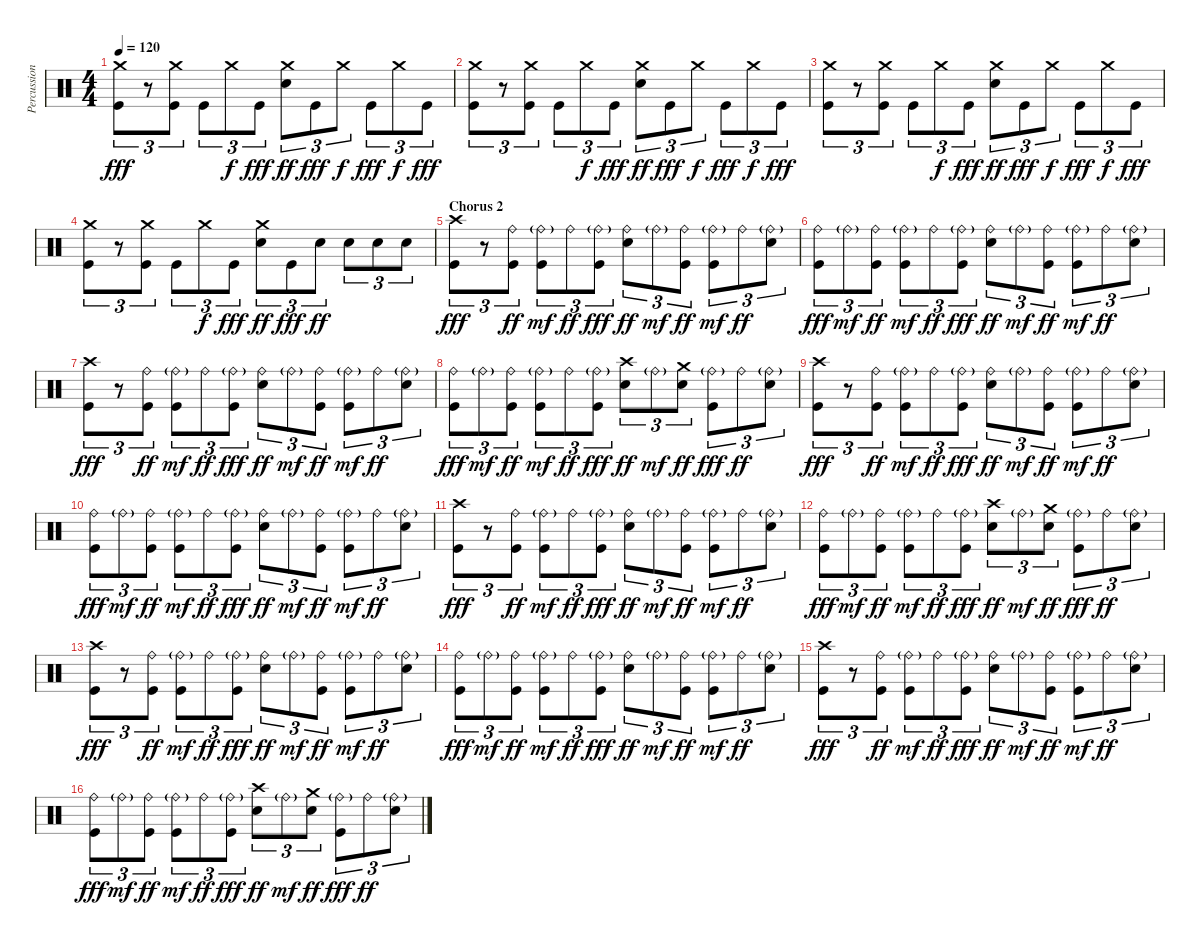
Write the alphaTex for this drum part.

\track ("Percussion" "Percussion") {instrument percussion}
\staff {score}
\articulation defaults
\ts (4 4)
\tempo 120
\clef neutral
\ks c
("Crash medium (hit)" "Kick (hit)").8{tu (3 2) dy fff} r.8{tu (3 2)} ("Crash medium (hit)" "Kick (hit)").8{tu (3 2)} "Kick (hit)".8{tu (3 2)} "Crash medium (hit)".8{tu (3 2) dy f} "Kick (hit)".8{tu (3 2) dy fff} ("Crash medium (hit)" "Snare (hit) 2").8{tu (3 2) dy ff} "Kick (hit)".8{tu (3 2) dy fff} "Crash medium (hit)".8{tu (3 2) dy f} "Kick (hit)".8{tu (3 2) dy fff} "Crash medium (hit)".8{tu (3 2) dy f} "Kick (hit)".8{tu (3 2) dy fff} |
("Crash medium (hit)" "Kick (hit)").8{tu (3 2)} r.8{tu (3 2)} ("Crash medium (hit)" "Kick (hit)").8{tu (3 2)} "Kick (hit)".8{tu (3 2)} "Crash medium (hit)".8{tu (3 2) dy f} "Kick (hit)".8{tu (3 2) dy fff} ("Crash medium (hit)" "Snare (hit) 2").8{tu (3 2) dy ff} "Kick (hit)".8{tu (3 2) dy fff} "Crash medium (hit)".8{tu (3 2) dy f} "Kick (hit)".8{tu (3 2) dy fff} "Crash medium (hit)".8{tu (3 2) dy f} "Kick (hit)".8{tu (3 2) dy fff} |
("Crash medium (hit)" "Kick (hit)").8{tu (3 2)} r.8{tu (3 2)} ("Crash medium (hit)" "Kick (hit)").8{tu (3 2)} "Kick (hit)".8{tu (3 2)} "Crash medium (hit)".8{tu (3 2) dy f} "Kick (hit)".8{tu (3 2) dy fff} ("Crash medium (hit)" "Snare (hit) 2").8{tu (3 2) dy ff} "Kick (hit)".8{tu (3 2) dy fff} "Crash medium (hit)".8{tu (3 2) dy f} "Kick (hit)".8{tu (3 2) dy fff} "Crash medium (hit)".8{tu (3 2) dy f} "Kick (hit)".8{tu (3 2) dy fff} |
("Crash medium (hit)" "Kick (hit)").8{tu (3 2)} r.8{tu (3 2)} ("Crash medium (hit)" "Kick (hit)").8{tu (3 2)} "Kick (hit)".8{tu (3 2)} "Crash medium (hit)".8{tu (3 2) dy f} "Kick (hit)".8{tu (3 2) dy fff} ("Crash medium (hit)" "Snare (hit) 2").8{tu (3 2) dy ff} "Kick (hit)".8{tu (3 2) dy fff} "Snare (hit) 2".8{tu (3 2) dy ff} "Snare (hit) 2".8{tu (3 2)} "Snare (hit) 2".8{tu (3 2)} "Snare (hit) 2".8{tu (3 2)} |
\section ("" "Chorus 2")
("Crash high (hit)" "Kick (hit)").8{tu (3 2) dy fff} r.8{tu (3 2)} ("Ride (bell)" "Kick (hit)").8{tu (3 2) dy ff} ("Ride (bell)"{g} "Kick (hit)").8{tu (3 2) dy mf} "Ride (bell)".8{tu (3 2) dy ff} ("Ride (bell)"{g} "Kick (hit)").8{tu (3 2) dy fff} ("Ride (bell)" "Snare (hit) 2").8{tu (3 2) dy ff} "Ride (bell)"{g}.8{tu (3 2) dy mf} ("Ride (bell)" "Kick (hit)").8{tu (3 2) dy ff} ("Ride (bell)"{g} "Kick (hit)").8{tu (3 2) dy mf} "Ride (bell)".8{tu (3 2) dy ff} ("Ride (bell)"{g} "Snare (hit) 2").8{tu (3 2)} |
("Ride (bell)" "Kick (hit)").8{tu (3 2) dy fff} "Ride (bell)"{g}.8{tu (3 2) dy mf} ("Ride (bell)" "Kick (hit)").8{tu (3 2) dy ff} ("Ride (bell)"{g} "Kick (hit)").8{tu (3 2) dy mf} "Ride (bell)".8{tu (3 2) dy ff} ("Ride (bell)"{g} "Kick (hit)").8{tu (3 2) dy fff} ("Ride (bell)" "Snare (hit) 2").8{tu (3 2) dy ff} "Ride (bell)"{g}.8{tu (3 2) dy mf} ("Ride (bell)" "Kick (hit)").8{tu (3 2) dy ff} ("Ride (bell)"{g} "Kick (hit)").8{tu (3 2) dy mf} "Ride (bell)".8{tu (3 2) dy ff} ("Ride (bell)"{g} "Snare (hit) 2").8{tu (3 2)} |
("Crash high (hit)" "Kick (hit)").8{tu (3 2) dy fff} r.8{tu (3 2)} ("Ride (bell)" "Kick (hit)").8{tu (3 2) dy ff} ("Ride (bell)"{g} "Kick (hit)").8{tu (3 2) dy mf} "Ride (bell)".8{tu (3 2) dy ff} ("Ride (bell)"{g} "Kick (hit)").8{tu (3 2) dy fff} ("Ride (bell)" "Snare (hit) 2").8{tu (3 2) dy ff} "Ride (bell)"{g}.8{tu (3 2) dy mf} ("Ride (bell)" "Kick (hit)").8{tu (3 2) dy ff} ("Ride (bell)"{g} "Kick (hit)").8{tu (3 2) dy mf} "Ride (bell)".8{tu (3 2) dy ff} ("Ride (bell)"{g} "Snare (hit) 2").8{tu (3 2)} |
("Ride (bell)" "Kick (hit)").8{tu (3 2) dy fff} "Ride (bell)"{g}.8{tu (3 2) dy mf} ("Ride (bell)" "Kick (hit)").8{tu (3 2) dy ff} ("Ride (bell)"{g} "Kick (hit)").8{tu (3 2) dy mf} "Ride (bell)".8{tu (3 2) dy ff} ("Ride (bell)"{g} "Kick (hit)").8{tu (3 2) dy fff} ("Crash high (hit)" "Snare (hit) 2").8{tu (3 2) dy ff} "Ride (bell)"{g}.8{tu (3 2) dy mf} ("Crash medium (hit)" "Snare (hit) 2").8{tu (3 2) dy ff} ("Ride (bell)"{g} "Kick (hit)").8{tu (3 2) dy fff} "Ride (bell)".8{tu (3 2) dy ff} ("Ride (bell)"{g} "Snare (hit) 2").8{tu (3 2)} |
("Crash high (hit)" "Kick (hit)").8{tu (3 2) dy fff} r.8{tu (3 2)} ("Ride (bell)" "Kick (hit)").8{tu (3 2) dy ff} ("Ride (bell)"{g} "Kick (hit)").8{tu (3 2) dy mf} "Ride (bell)".8{tu (3 2) dy ff} ("Ride (bell)"{g} "Kick (hit)").8{tu (3 2) dy fff} ("Ride (bell)" "Snare (hit) 2").8{tu (3 2) dy ff} "Ride (bell)"{g}.8{tu (3 2) dy mf} ("Ride (bell)" "Kick (hit)").8{tu (3 2) dy ff} ("Ride (bell)"{g} "Kick (hit)").8{tu (3 2) dy mf} "Ride (bell)".8{tu (3 2) dy ff} ("Ride (bell)"{g} "Snare (hit) 2").8{tu (3 2)} |
("Ride (bell)" "Kick (hit)").8{tu (3 2) dy fff} "Ride (bell)"{g}.8{tu (3 2) dy mf} ("Ride (bell)" "Kick (hit)").8{tu (3 2) dy ff} ("Ride (bell)"{g} "Kick (hit)").8{tu (3 2) dy mf} "Ride (bell)".8{tu (3 2) dy ff} ("Ride (bell)"{g} "Kick (hit)").8{tu (3 2) dy fff} ("Ride (bell)" "Snare (hit) 2").8{tu (3 2) dy ff} "Ride (bell)"{g}.8{tu (3 2) dy mf} ("Ride (bell)" "Kick (hit)").8{tu (3 2) dy ff} ("Ride (bell)"{g} "Kick (hit)").8{tu (3 2) dy mf} "Ride (bell)".8{tu (3 2) dy ff} ("Ride (bell)"{g} "Snare (hit) 2").8{tu (3 2)} |
("Crash high (hit)" "Kick (hit)").8{tu (3 2) dy fff} r.8{tu (3 2)} ("Ride (bell)" "Kick (hit)").8{tu (3 2) dy ff} ("Ride (bell)"{g} "Kick (hit)").8{tu (3 2) dy mf} "Ride (bell)".8{tu (3 2) dy ff} ("Ride (bell)"{g} "Kick (hit)").8{tu (3 2) dy fff} ("Ride (bell)" "Snare (hit) 2").8{tu (3 2) dy ff} "Ride (bell)"{g}.8{tu (3 2) dy mf} ("Ride (bell)" "Kick (hit)").8{tu (3 2) dy ff} ("Ride (bell)"{g} "Kick (hit)").8{tu (3 2) dy mf} "Ride (bell)".8{tu (3 2) dy ff} ("Ride (bell)"{g} "Snare (hit) 2").8{tu (3 2)} |
("Ride (bell)" "Kick (hit)").8{tu (3 2) dy fff} "Ride (bell)"{g}.8{tu (3 2) dy mf} ("Ride (bell)" "Kick (hit)").8{tu (3 2) dy ff} ("Ride (bell)"{g} "Kick (hit)").8{tu (3 2) dy mf} "Ride (bell)".8{tu (3 2) dy ff} ("Ride (bell)"{g} "Kick (hit)").8{tu (3 2) dy fff} ("Crash high (hit)" "Snare (hit) 2").8{tu (3 2) dy ff} "Ride (bell)"{g}.8{tu (3 2) dy mf} ("Crash medium (hit)" "Snare (hit) 2").8{tu (3 2) dy ff} ("Ride (bell)"{g} "Kick (hit)").8{tu (3 2) dy fff} "Ride (bell)".8{tu (3 2) dy ff} ("Ride (bell)"{g} "Snare (hit) 2").8{tu (3 2)} |
("Crash high (hit)" "Kick (hit)").8{tu (3 2) dy fff} r.8{tu (3 2)} ("Ride (bell)" "Kick (hit)").8{tu (3 2) dy ff} ("Ride (bell)"{g} "Kick (hit)").8{tu (3 2) dy mf} "Ride (bell)".8{tu (3 2) dy ff} ("Ride (bell)"{g} "Kick (hit)").8{tu (3 2) dy fff} ("Ride (bell)" "Snare (hit) 2").8{tu (3 2) dy ff} "Ride (bell)"{g}.8{tu (3 2) dy mf} ("Ride (bell)" "Kick (hit)").8{tu (3 2) dy ff} ("Ride (bell)"{g} "Kick (hit)").8{tu (3 2) dy mf} "Ride (bell)".8{tu (3 2) dy ff} ("Ride (bell)"{g} "Snare (hit) 2").8{tu (3 2)} |
("Ride (bell)" "Kick (hit)").8{tu (3 2) dy fff} "Ride (bell)"{g}.8{tu (3 2) dy mf} ("Ride (bell)" "Kick (hit)").8{tu (3 2) dy ff} ("Ride (bell)"{g} "Kick (hit)").8{tu (3 2) dy mf} "Ride (bell)".8{tu (3 2) dy ff} ("Ride (bell)"{g} "Kick (hit)").8{tu (3 2) dy fff} ("Ride (bell)" "Snare (hit) 2").8{tu (3 2) dy ff} "Ride (bell)"{g}.8{tu (3 2) dy mf} ("Ride (bell)" "Kick (hit)").8{tu (3 2) dy ff} ("Ride (bell)"{g} "Kick (hit)").8{tu (3 2) dy mf} "Ride (bell)".8{tu (3 2) dy ff} ("Ride (bell)"{g} "Snare (hit) 2").8{tu (3 2)} |
("Crash high (hit)" "Kick (hit)").8{tu (3 2) dy fff} r.8{tu (3 2)} ("Ride (bell)" "Kick (hit)").8{tu (3 2) dy ff} ("Ride (bell)"{g} "Kick (hit)").8{tu (3 2) dy mf} "Ride (bell)".8{tu (3 2) dy ff} ("Ride (bell)"{g} "Kick (hit)").8{tu (3 2) dy fff} ("Ride (bell)" "Snare (hit) 2").8{tu (3 2) dy ff} "Ride (bell)"{g}.8{tu (3 2) dy mf} ("Ride (bell)" "Kick (hit)").8{tu (3 2) dy ff} ("Ride (bell)"{g} "Kick (hit)").8{tu (3 2) dy mf} "Ride (bell)".8{tu (3 2) dy ff} ("Ride (bell)"{g} "Snare (hit) 2").8{tu (3 2)} |
("Ride (bell)" "Kick (hit)").8{tu (3 2) dy fff} "Ride (bell)"{g}.8{tu (3 2) dy mf} ("Ride (bell)" "Kick (hit)").8{tu (3 2) dy ff} ("Ride (bell)"{g} "Kick (hit)").8{tu (3 2) dy mf} "Ride (bell)".8{tu (3 2) dy ff} ("Ride (bell)"{g} "Kick (hit)").8{tu (3 2) dy fff} ("Crash high (hit)" "Snare (hit) 2").8{tu (3 2) dy ff} "Ride (bell)"{g}.8{tu (3 2) dy mf} ("Crash medium (hit)" "Snare (hit) 2").8{tu (3 2) dy ff} ("Ride (bell)"{g} "Kick (hit)").8{tu (3 2) dy fff} "Ride (bell)".8{tu (3 2) dy ff} ("Ride (bell)"{g} "Snare (hit) 2").8{tu (3 2)}
